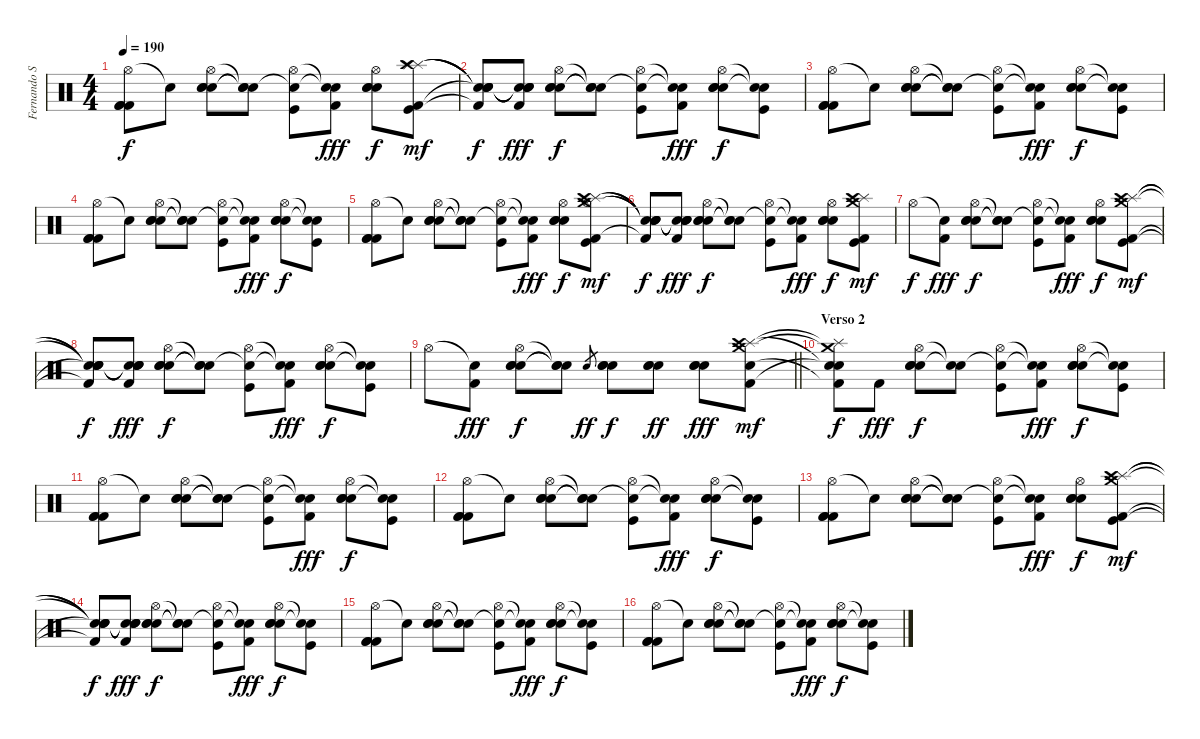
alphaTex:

\track ("Fernando Sarcella" "Fernando S") {instrument percussion}
\staff {score}
\articulation defaults
\ts (4 4)
\tempo 190
\clef neutral
\ks c
("Hi-Hat (open)" "Kick (hit) 2" "Kick (hit) 2" "Kick (hit) 2").8{dy f} "Snare (hit)"{t}.8 ("Hi-Hat (open)" "Electric Snare (hit)" "Electric Snare (hit)" "Electric Snare (hit)").8 ("Snare (hit)"{t} "Snare (hit)"{t} "Snare (hit)"{t}).8 ("Hi-Hat (open)" "Snare (hit)"{t} "Kick (hit)").8 ("Snare (hit)"{t} "Snare (hit)"{t} "Kick (hit) 2").8{dy fff} ("Hi-Hat (open)" "Electric Snare (hit)" "Electric Snare (hit)" "Electric Snare (hit)").8{dy f} ("Splash (hit)" "Splash (hit)" "Crash high (hit)" "Kick (hit) 2" "Kick (hit)").8{dy mf} |
("Snare (hit)"{t} "Snare (hit)"{t} "Snare (hit)"{t} "Snare (hit)"{t} "Kick (hit) 2"{t}).8{dy f} ("Snare (hit)"{t} "Snare (hit)"{t} "Snare (hit)"{t} "Snare (hit)"{t} "Kick (hit) 2").8{dy fff} ("Hi-Hat (open)" "Electric Snare (hit)" "Electric Snare (hit)" "Electric Snare (hit)").8{dy f} ("Snare (hit)"{t} "Snare (hit)"{t} "Snare (hit)"{t}).8 ("Hi-Hat (open)" "Snare (hit)"{t} "Kick (hit)").8 ("Snare (hit)"{t} "Snare (hit)"{t} "Kick (hit) 2").8{dy fff} ("Hi-Hat (open)" "Electric Snare (hit)" "Electric Snare (hit)" "Electric Snare (hit)").8{dy f} ("Snare (hit)"{t} "Snare (hit)"{t} "Kick (hit)").8 |
("Hi-Hat (open)" "Kick (hit) 2" "Kick (hit) 2" "Kick (hit) 2").8 "Snare (hit)"{t}.8 ("Hi-Hat (open)" "Electric Snare (hit)" "Electric Snare (hit)" "Electric Snare (hit)").8 ("Snare (hit)"{t} "Snare (hit)"{t} "Snare (hit)"{t}).8 ("Hi-Hat (open)" "Snare (hit)"{t} "Kick (hit)").8 ("Snare (hit)"{t} "Snare (hit)"{t} "Kick (hit) 2").8{dy fff} ("Hi-Hat (open)" "Electric Snare (hit)" "Electric Snare (hit)" "Electric Snare (hit)").8{dy f} ("Snare (hit)"{t} "Snare (hit)"{t} "Kick (hit)").8 |
("Hi-Hat (open)" "Kick (hit) 2" "Kick (hit) 2" "Kick (hit) 2").8 "Snare (hit)"{t}.8 ("Hi-Hat (open)" "Electric Snare (hit)" "Electric Snare (hit)" "Electric Snare (hit)").8 ("Snare (hit)"{t} "Snare (hit)"{t} "Snare (hit)"{t}).8 ("Hi-Hat (open)" "Snare (hit)"{t} "Kick (hit)").8 ("Snare (hit)"{t} "Snare (hit)"{t} "Kick (hit) 2").8{dy fff} ("Hi-Hat (open)" "Electric Snare (hit)" "Electric Snare (hit)" "Electric Snare (hit)").8{dy f} ("Snare (hit)"{t} "Snare (hit)"{t} "Kick (hit)").8 |
("Hi-Hat (open)" "Kick (hit) 2" "Kick (hit) 2" "Kick (hit) 2").8 "Snare (hit)"{t}.8 ("Hi-Hat (open)" "Electric Snare (hit)" "Electric Snare (hit)" "Electric Snare (hit)").8 ("Snare (hit)"{t} "Snare (hit)"{t} "Snare (hit)"{t}).8 ("Hi-Hat (open)" "Snare (hit)"{t} "Kick (hit)").8 ("Snare (hit)"{t} "Snare (hit)"{t} "Kick (hit) 2").8{dy fff} ("Hi-Hat (open)" "Electric Snare (hit)" "Electric Snare (hit)" "Electric Snare (hit)").8{dy f} ("Crash medium (hit)" "Splash (hit)" "Hi-Hat (open)" "Crash high (hit)" "Kick (hit) 2" "Kick (hit)").8{dy mf} |
("Snare (hit)"{t} "Snare (hit)"{t} "Snare (hit)"{t} "Snare (hit)"{t} "Kick (hit) 2"{t}).8{dy f} ("Snare (hit)"{t} "Snare (hit)"{t} "Snare (hit)"{t} "Snare (hit)"{t} "Kick (hit) 2").8{dy fff} ("Hi-Hat (open)" "Electric Snare (hit)" "Electric Snare (hit)" "Electric Snare (hit)").8{dy f} ("Snare (hit)"{t} "Snare (hit)"{t} "Snare (hit)"{t}).8 ("Hi-Hat (open)" "Snare (hit)"{t} "Kick (hit)").8 ("Snare (hit)"{t} "Snare (hit)"{t} "Kick (hit) 2").8{dy fff} ("Hi-Hat (open)" "Electric Snare (hit)" "Electric Snare (hit)" "Electric Snare (hit)").8{dy f} ("Crash medium (hit)" "Splash (hit)" "Crash high (hit)" "Kick (hit) 2" "Kick (hit)").8{dy mf} |
"Hi-Hat (open)".8{dy f} ("Snare (hit)"{t} "Kick (hit) 2").8{dy fff} ("Hi-Hat (open)" "Electric Snare (hit)" "Electric Snare (hit)" "Electric Snare (hit)").8{dy f} ("Snare (hit)"{t} "Snare (hit)"{t} "Snare (hit)"{t}).8 ("Hi-Hat (open)" "Snare (hit)"{t} "Kick (hit)").8 ("Snare (hit)"{t} "Snare (hit)"{t} "Kick (hit) 2").8{dy fff} ("Hi-Hat (open)" "Electric Snare (hit)" "Electric Snare (hit)" "Electric Snare (hit)").8{dy f} ("Crash medium (hit)" "Splash (hit)" "Crash high (hit)" "Kick (hit) 2" "Kick (hit)").8{dy mf} |
("Snare (hit)"{t} "Snare (hit)"{t} "Snare (hit)"{t} "Snare (hit)"{t} "Kick (hit) 2"{t}).8{dy f} ("Snare (hit)"{t} "Snare (hit)"{t} "Snare (hit)"{t} "Snare (hit)"{t} "Kick (hit) 2").8{dy fff} ("Hi-Hat (open)" "Electric Snare (hit)" "Electric Snare (hit)" "Electric Snare (hit)").8{dy f} ("Snare (hit)"{t} "Snare (hit)"{t} "Snare (hit)"{t}).8 ("Hi-Hat (open)" "Snare (hit)"{t} "Kick (hit)").8 ("Snare (hit)"{t} "Snare (hit)"{t} "Kick (hit) 2").8{dy fff} ("Hi-Hat (open)" "Electric Snare (hit)" "Electric Snare (hit)" "Electric Snare (hit)").8{dy f} ("Snare (hit)"{t} "Snare (hit)"{t} "Kick (hit)").8 |
\barLineRight lightlight "Hi-Hat (open)".8
("Snare (hit)"{t} "Kick (hit) 2").8{dy fff} ("Hi-Hat (open)" "Electric Snare (hit)" "Electric Snare (hit)" "Electric Snare (hit)").8{dy f} ("Snare (hit)"{t} "Snare (hit)"{t} "Snare (hit)"{t}).8 "Electric Snare (hit)".8{gr dy ff} ("Electric Snare (hit)" "Electric Snare (hit)" "Electric Snare (hit)").8{dy f} ("Electric Snare (hit)" "Electric Snare (hit)" "Electric Snare (hit)").8{dy ff} ("Electric Snare (hit)" "Electric Snare (hit)" "Electric Snare (hit)").8{dy fff} ("Crash medium (hit)" "Splash (hit)" "Crash high (hit)" "Kick (hit) 2" "Snare (hit)").8{dy mf} |
\section ("" "Verso 2")
("Crash medium (hit)"{t} "Splash (hit)"{t} "Snare (hit)"{t} "Snare (hit)"{t} "Kick (hit) 2"{t}).8{dy f} "Kick (hit) 2".8{dy fff} ("Hi-Hat (open)" "Electric Snare (hit)" "Electric Snare (hit)" "Electric Snare (hit)").8{dy f} ("Snare (hit)"{t} "Snare (hit)"{t}).8 ("Hi-Hat (open)" "Snare (hit)"{t} "Kick (hit)").8 ("Snare (hit)"{t} "Snare (hit)"{t} "Kick (hit) 2").8{dy fff} ("Hi-Hat (open)" "Electric Snare (hit)" "Electric Snare (hit)" "Electric Snare (hit)").8{dy f} ("Snare (hit)"{t} "Snare (hit)"{t} "Kick (hit)").8 |
("Hi-Hat (open)" "Kick (hit) 2" "Kick (hit) 2" "Kick (hit) 2").8 "Snare (hit)"{t}.8 ("Hi-Hat (open)" "Electric Snare (hit)" "Electric Snare (hit)" "Electric Snare (hit)").8 ("Snare (hit)"{t} "Snare (hit)"{t} "Snare (hit)"{t}).8 ("Hi-Hat (open)" "Snare (hit)"{t} "Kick (hit)").8 ("Snare (hit)"{t} "Snare (hit)"{t} "Kick (hit) 2").8{dy fff} ("Hi-Hat (open)" "Electric Snare (hit)" "Electric Snare (hit)" "Electric Snare (hit)").8{dy f} ("Snare (hit)"{t} "Snare (hit)"{t} "Kick (hit)").8 |
("Hi-Hat (open)" "Kick (hit) 2" "Kick (hit) 2" "Kick (hit) 2").8 "Snare (hit)"{t}.8 ("Hi-Hat (open)" "Electric Snare (hit)" "Electric Snare (hit)" "Electric Snare (hit)").8 ("Snare (hit)"{t} "Snare (hit)"{t} "Snare (hit)"{t}).8 ("Hi-Hat (open)" "Snare (hit)"{t} "Kick (hit)").8 ("Snare (hit)"{t} "Snare (hit)"{t} "Kick (hit) 2").8{dy fff} ("Hi-Hat (open)" "Electric Snare (hit)" "Electric Snare (hit)" "Electric Snare (hit)").8{dy f} ("Snare (hit)"{t} "Snare (hit)"{t} "Kick (hit)").8 |
("Hi-Hat (open)" "Kick (hit) 2" "Kick (hit) 2" "Kick (hit) 2").8 "Snare (hit)"{t}.8 ("Hi-Hat (open)" "Electric Snare (hit)" "Electric Snare (hit)" "Electric Snare (hit)").8 ("Snare (hit)"{t} "Snare (hit)"{t} "Snare (hit)"{t}).8 ("Hi-Hat (open)" "Snare (hit)"{t} "Kick (hit)").8 ("Snare (hit)"{t} "Snare (hit)"{t} "Kick (hit) 2").8{dy fff} ("Hi-Hat (open)" "Electric Snare (hit)" "Electric Snare (hit)" "Electric Snare (hit)").8{dy f} ("Crash medium (hit)" "Splash (hit)" "Crash high (hit)" "Kick (hit) 2" "Kick (hit)").8{dy mf} |
("Snare (hit)"{t} "Snare (hit)"{t} "Snare (hit)"{t} "Snare (hit)"{t} "Kick (hit) 2"{t}).8{dy f} ("Snare (hit)"{t} "Snare (hit)"{t} "Snare (hit)"{t} "Snare (hit)"{t} "Kick (hit) 2").8{dy fff} ("Hi-Hat (open)" "Electric Snare (hit)" "Electric Snare (hit)" "Electric Snare (hit)").8{dy f} ("Snare (hit)"{t} "Snare (hit)"{t} "Snare (hit)"{t}).8 ("Hi-Hat (open)" "Snare (hit)"{t} "Kick (hit)").8 ("Snare (hit)"{t} "Snare (hit)"{t} "Kick (hit) 2").8{dy fff} ("Hi-Hat (open)" "Electric Snare (hit)" "Electric Snare (hit)" "Electric Snare (hit)").8{dy f} ("Snare (hit)"{t} "Snare (hit)"{t} "Kick (hit)").8 |
("Hi-Hat (open)" "Kick (hit) 2" "Kick (hit) 2" "Kick (hit) 2").8 "Snare (hit)"{t}.8 ("Hi-Hat (open)" "Electric Snare (hit)" "Electric Snare (hit)" "Electric Snare (hit)").8 ("Snare (hit)"{t} "Snare (hit)"{t} "Snare (hit)"{t}).8 ("Hi-Hat (open)" "Snare (hit)"{t} "Kick (hit)").8 ("Snare (hit)"{t} "Snare (hit)"{t} "Kick (hit) 2").8{dy fff} ("Hi-Hat (open)" "Electric Snare (hit)" "Electric Snare (hit)" "Electric Snare (hit)").8{dy f} ("Snare (hit)"{t} "Snare (hit)"{t} "Kick (hit)").8 |
("Hi-Hat (open)" "Kick (hit) 2" "Kick (hit) 2" "Kick (hit) 2").8 "Snare (hit)"{t}.8 ("Hi-Hat (open)" "Electric Snare (hit)" "Electric Snare (hit)" "Electric Snare (hit)").8 ("Snare (hit)"{t} "Snare (hit)"{t} "Snare (hit)"{t}).8 ("Hi-Hat (open)" "Snare (hit)"{t} "Kick (hit)").8 ("Snare (hit)"{t} "Snare (hit)"{t} "Kick (hit) 2").8{dy fff} ("Hi-Hat (open)" "Electric Snare (hit)" "Electric Snare (hit)" "Electric Snare (hit)").8{dy f} ("Snare (hit)"{t} "Snare (hit)"{t} "Kick (hit)").8
